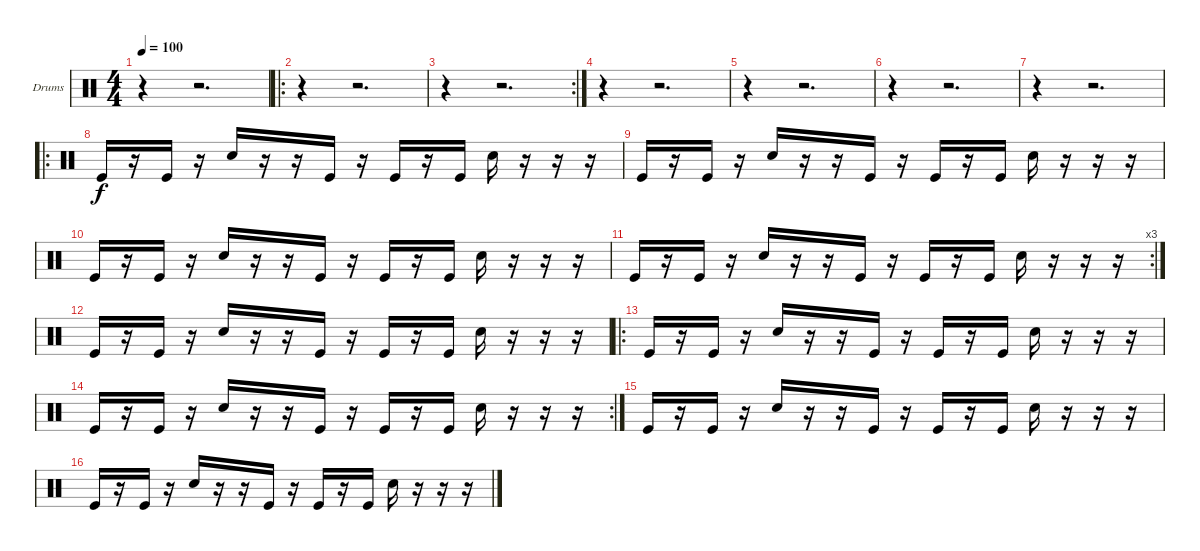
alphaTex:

\bracketExtendMode groupsimilarinstruments
\firstSystemTrackNameOrientation horizontal
\otherSystemsTrackNameOrientation horizontal
\track ("Drumkit" "Drums") {instrument percussion}
\staff {score}
\articulation defaults
\ts (4 4)
\beaming (8 2 2 2 2)
\tempo 100
\clef neutral
\ks c
r.4{dy f} r.2{d} |
\ro
r.4 r.2{d} |
\rc 2
r.4 r.2{d} |
r.4 r.2{d} |
r.4 r.2{d} |
r.4 r.2{d} |
r.4 r.2{d} |
\ro "Kick (hit)".16
r.16 "Kick (hit)".16 r.16 "Snare (hit) 2".16 r.16 r.16 "Kick (hit)".16 r.16 "Kick (hit)".16 r.16 "Kick (hit)".16 "Snare (hit) 2".16 r.16 r.16 r.16 |
"Kick (hit)".16 r.16 "Kick (hit)".16 r.16 "Snare (hit) 2".16 r.16 r.16 "Kick (hit)".16 r.16 "Kick (hit)".16 r.16 "Kick (hit)".16 "Snare (hit) 2".16 r.16 r.16 r.16 |
"Kick (hit)".16 r.16 "Kick (hit)".16 r.16 "Snare (hit) 2".16 r.16 r.16 "Kick (hit)".16 r.16 "Kick (hit)".16 r.16 "Kick (hit)".16 "Snare (hit) 2".16 r.16 r.16 r.16 |
\rc 3 "Kick (hit)".16
r.16 "Kick (hit)".16 r.16 "Snare (hit) 2".16 r.16 r.16 "Kick (hit)".16 r.16 "Kick (hit)".16 r.16 "Kick (hit)".16 "Snare (hit) 2".16 r.16 r.16 r.16 |
"Kick (hit)".16 r.16 "Kick (hit)".16 r.16 "Snare (hit) 2".16 r.16 r.16 "Kick (hit)".16 r.16 "Kick (hit)".16 r.16 "Kick (hit)".16 "Snare (hit) 2".16 r.16 r.16 r.16 |
\ro "Kick (hit)".16
r.16 "Kick (hit)".16 r.16 "Snare (hit) 2".16 r.16 r.16 "Kick (hit)".16 r.16 "Kick (hit)".16 r.16 "Kick (hit)".16 "Snare (hit) 2".16 r.16 r.16 r.16 |
\rc 2 "Kick (hit)".16
r.16 "Kick (hit)".16 r.16 "Snare (hit) 2".16 r.16 r.16 "Kick (hit)".16 r.16 "Kick (hit)".16 r.16 "Kick (hit)".16 "Snare (hit) 2".16 r.16 r.16 r.16 |
"Kick (hit)".16 r.16 "Kick (hit)".16 r.16 "Snare (hit) 2".16 r.16 r.16 "Kick (hit)".16 r.16 "Kick (hit)".16 r.16 "Kick (hit)".16 "Snare (hit) 2".16 r.16 r.16 r.16 |
"Kick (hit)".16 r.16 "Kick (hit)".16 r.16 "Snare (hit) 2".16 r.16 r.16 "Kick (hit)".16 r.16 "Kick (hit)".16 r.16 "Kick (hit)".16 "Snare (hit) 2".16 r.16 r.16 r.16
